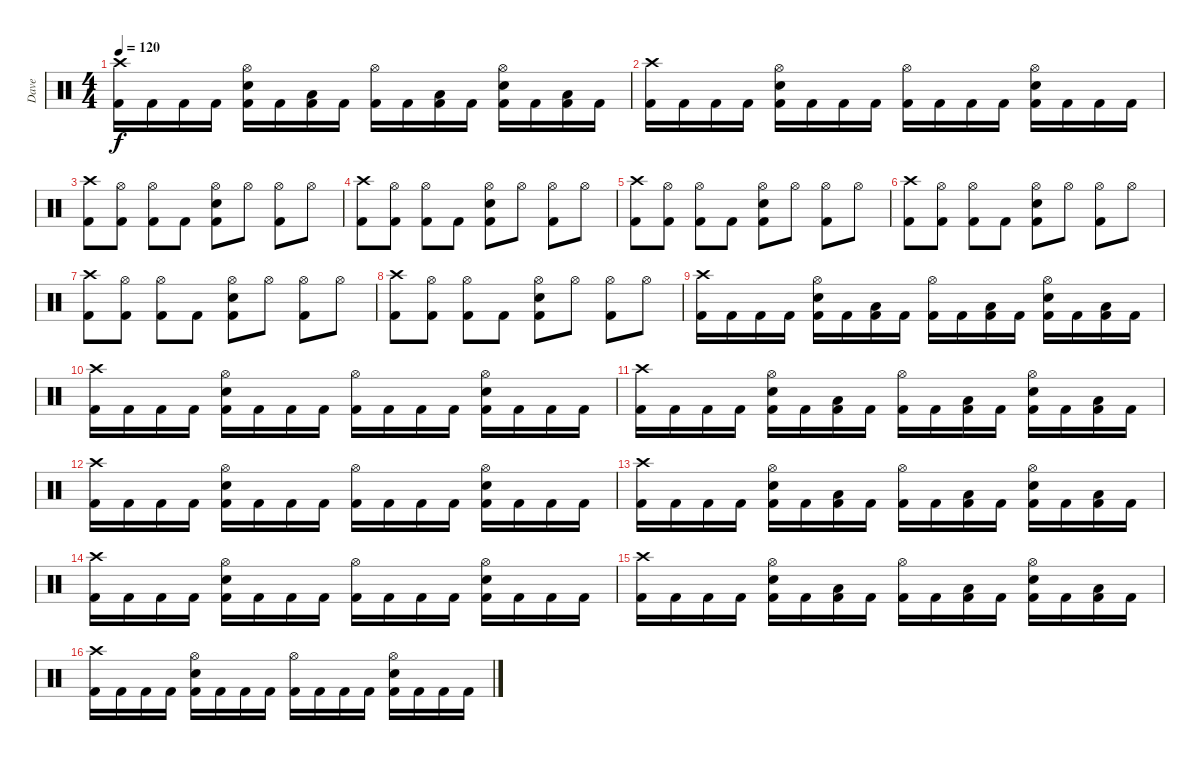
\track ("Dave" "Dave") {instrument percussion}
\staff {score}
\articulation defaults
\ts (4 4)
\tempo 120
\clef neutral
\ks c
("Kick (hit) 2" "Crash high (hit)").16{dy f} "Kick (hit) 2".16 "Kick (hit) 2".16 "Kick (hit) 2".16 ("Kick (hit) 2" "Snare (hit) 2" "Hi-Hat (open)").16 "Kick (hit) 2".16 ("Kick (hit) 2" "Low Tom (hit)").16 "Kick (hit) 2".16 ("Kick (hit) 2" "Hi-Hat (open)").16 "Kick (hit) 2".16 ("Kick (hit) 2" "Low Tom (hit)").16 "Kick (hit) 2".16 ("Kick (hit) 2" "Snare (hit) 2" "Hi-Hat (open)").16 "Kick (hit) 2".16 ("Kick (hit) 2" "Low Floor Tom (hit)").16 "Kick (hit) 2".16 |
("Kick (hit) 2" "Crash high (hit)").16 "Kick (hit) 2".16 "Kick (hit) 2".16 "Kick (hit) 2".16 ("Kick (hit) 2" "Snare (hit) 2" "Hi-Hat (open)").16 "Kick (hit) 2".16 "Kick (hit) 2".16 "Kick (hit) 2".16 ("Kick (hit) 2" "Hi-Hat (open)").16 "Kick (hit) 2".16 "Kick (hit) 2".16 "Kick (hit) 2".16 ("Kick (hit) 2" "Snare (hit) 2" "Hi-Hat (open)").16 "Kick (hit) 2".16 "Kick (hit) 2".16 "Kick (hit) 2".16 |
("Kick (hit) 2" "Crash high (hit)").8 ("Kick (hit) 2" "Hi-Hat (open)").8 ("Kick (hit) 2" "Hi-Hat (open)").8 "Kick (hit) 2".8 ("Kick (hit) 2" "Snare (hit) 2" "Hi-Hat (open)").8 "Hi-Hat (open)".8 ("Kick (hit) 2" "Hi-Hat (open)").8 "Hi-Hat (open)".8 |
("Kick (hit) 2" "Crash high (hit)").8 ("Kick (hit) 2" "Hi-Hat (open)").8 ("Kick (hit) 2" "Hi-Hat (open)").8 "Kick (hit) 2".8 ("Kick (hit) 2" "Snare (hit) 2" "Hi-Hat (open)").8 "Hi-Hat (open)".8 ("Kick (hit) 2" "Hi-Hat (open)").8 "Hi-Hat (open)".8 |
("Kick (hit) 2" "Crash high (hit)").8 ("Kick (hit) 2" "Hi-Hat (open)").8 ("Kick (hit) 2" "Hi-Hat (open)").8 "Kick (hit) 2".8 ("Kick (hit) 2" "Snare (hit) 2" "Hi-Hat (open)").8 "Hi-Hat (open)".8 ("Kick (hit) 2" "Hi-Hat (open)").8 "Hi-Hat (open)".8 |
("Kick (hit) 2" "Crash high (hit)").8 ("Kick (hit) 2" "Hi-Hat (open)").8 ("Kick (hit) 2" "Hi-Hat (open)").8 "Kick (hit) 2".8 ("Kick (hit) 2" "Snare (hit) 2" "Hi-Hat (open)").8 "Hi-Hat (open)".8 ("Kick (hit) 2" "Hi-Hat (open)").8 "Hi-Hat (open)".8 |
("Kick (hit) 2" "Crash high (hit)").8 ("Kick (hit) 2" "Hi-Hat (open)").8 ("Kick (hit) 2" "Hi-Hat (open)").8 "Kick (hit) 2".8 ("Kick (hit) 2" "Snare (hit) 2" "Hi-Hat (open)").8 "Hi-Hat (open)".8 ("Kick (hit) 2" "Hi-Hat (open)").8 "Hi-Hat (open)".8 |
("Kick (hit) 2" "Crash high (hit)").8 ("Kick (hit) 2" "Hi-Hat (open)").8 ("Kick (hit) 2" "Hi-Hat (open)").8 "Kick (hit) 2".8 ("Kick (hit) 2" "Snare (hit) 2" "Hi-Hat (open)").8 "Hi-Hat (open)".8 ("Kick (hit) 2" "Hi-Hat (open)").8 "Hi-Hat (open)".8 |
("Kick (hit) 2" "Crash high (hit)").16 "Kick (hit) 2".16 "Kick (hit) 2".16 "Kick (hit) 2".16 ("Kick (hit) 2" "Snare (hit) 2" "Hi-Hat (open)").16 "Kick (hit) 2".16 ("Kick (hit) 2" "Low Tom (hit)").16 "Kick (hit) 2".16 ("Kick (hit) 2" "Hi-Hat (open)").16 "Kick (hit) 2".16 ("Kick (hit) 2" "Low Tom (hit)").16 "Kick (hit) 2".16 ("Kick (hit) 2" "Snare (hit) 2" "Hi-Hat (open)").16 "Kick (hit) 2".16 ("Kick (hit) 2" "Low Floor Tom (hit)").16 "Kick (hit) 2".16 |
("Kick (hit) 2" "Crash high (hit)").16 "Kick (hit) 2".16 "Kick (hit) 2".16 "Kick (hit) 2".16 ("Kick (hit) 2" "Snare (hit) 2" "Hi-Hat (open)").16 "Kick (hit) 2".16 "Kick (hit) 2".16 "Kick (hit) 2".16 ("Kick (hit) 2" "Hi-Hat (open)").16 "Kick (hit) 2".16 "Kick (hit) 2".16 "Kick (hit) 2".16 ("Kick (hit) 2" "Snare (hit) 2" "Hi-Hat (open)").16 "Kick (hit) 2".16 "Kick (hit) 2".16 "Kick (hit) 2".16 |
("Kick (hit) 2" "Crash high (hit)").16 "Kick (hit) 2".16 "Kick (hit) 2".16 "Kick (hit) 2".16 ("Kick (hit) 2" "Snare (hit) 2" "Hi-Hat (open)").16 "Kick (hit) 2".16 ("Kick (hit) 2" "Low Tom (hit)").16 "Kick (hit) 2".16 ("Kick (hit) 2" "Hi-Hat (open)").16 "Kick (hit) 2".16 ("Kick (hit) 2" "Low Tom (hit)").16 "Kick (hit) 2".16 ("Kick (hit) 2" "Snare (hit) 2" "Hi-Hat (open)").16 "Kick (hit) 2".16 ("Kick (hit) 2" "Low Floor Tom (hit)").16 "Kick (hit) 2".16 |
("Kick (hit) 2" "Crash high (hit)").16 "Kick (hit) 2".16 "Kick (hit) 2".16 "Kick (hit) 2".16 ("Kick (hit) 2" "Snare (hit) 2" "Hi-Hat (open)").16 "Kick (hit) 2".16 "Kick (hit) 2".16 "Kick (hit) 2".16 ("Kick (hit) 2" "Hi-Hat (open)").16 "Kick (hit) 2".16 "Kick (hit) 2".16 "Kick (hit) 2".16 ("Kick (hit) 2" "Snare (hit) 2" "Hi-Hat (open)").16 "Kick (hit) 2".16 "Kick (hit) 2".16 "Kick (hit) 2".16 |
("Kick (hit) 2" "Crash high (hit)").16 "Kick (hit) 2".16 "Kick (hit) 2".16 "Kick (hit) 2".16 ("Kick (hit) 2" "Snare (hit) 2" "Hi-Hat (open)").16 "Kick (hit) 2".16 ("Kick (hit) 2" "Low Tom (hit)").16 "Kick (hit) 2".16 ("Kick (hit) 2" "Hi-Hat (open)").16 "Kick (hit) 2".16 ("Kick (hit) 2" "Low Tom (hit)").16 "Kick (hit) 2".16 ("Kick (hit) 2" "Snare (hit) 2" "Hi-Hat (open)").16 "Kick (hit) 2".16 ("Kick (hit) 2" "Low Floor Tom (hit)").16 "Kick (hit) 2".16 |
("Kick (hit) 2" "Crash high (hit)").16 "Kick (hit) 2".16 "Kick (hit) 2".16 "Kick (hit) 2".16 ("Kick (hit) 2" "Snare (hit) 2" "Hi-Hat (open)").16 "Kick (hit) 2".16 "Kick (hit) 2".16 "Kick (hit) 2".16 ("Kick (hit) 2" "Hi-Hat (open)").16 "Kick (hit) 2".16 "Kick (hit) 2".16 "Kick (hit) 2".16 ("Kick (hit) 2" "Snare (hit) 2" "Hi-Hat (open)").16 "Kick (hit) 2".16 "Kick (hit) 2".16 "Kick (hit) 2".16 |
("Kick (hit) 2" "Crash high (hit)").16 "Kick (hit) 2".16 "Kick (hit) 2".16 "Kick (hit) 2".16 ("Kick (hit) 2" "Snare (hit) 2" "Hi-Hat (open)").16 "Kick (hit) 2".16 ("Kick (hit) 2" "Low Tom (hit)").16 "Kick (hit) 2".16 ("Kick (hit) 2" "Hi-Hat (open)").16 "Kick (hit) 2".16 ("Kick (hit) 2" "Low Tom (hit)").16 "Kick (hit) 2".16 ("Kick (hit) 2" "Snare (hit) 2" "Hi-Hat (open)").16 "Kick (hit) 2".16 ("Kick (hit) 2" "Low Floor Tom (hit)").16 "Kick (hit) 2".16 |
("Kick (hit) 2" "Crash high (hit)").16 "Kick (hit) 2".16 "Kick (hit) 2".16 "Kick (hit) 2".16 ("Kick (hit) 2" "Snare (hit) 2" "Hi-Hat (open)").16 "Kick (hit) 2".16 "Kick (hit) 2".16 "Kick (hit) 2".16 ("Kick (hit) 2" "Hi-Hat (open)").16 "Kick (hit) 2".16 "Kick (hit) 2".16 "Kick (hit) 2".16 ("Kick (hit) 2" "Snare (hit) 2" "Hi-Hat (open)").16 "Kick (hit) 2".16 "Kick (hit) 2".16 "Kick (hit) 2".16
